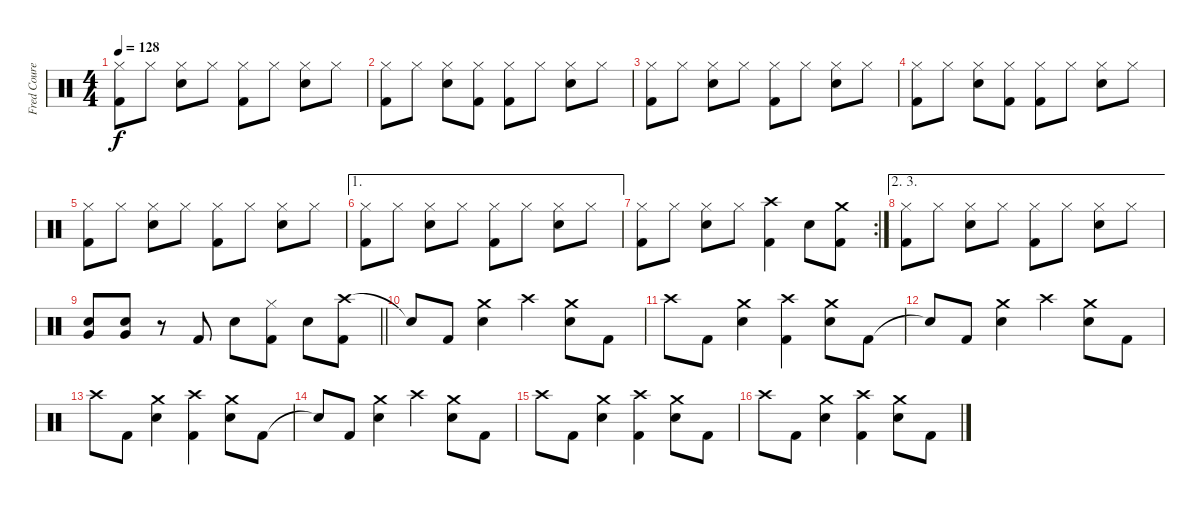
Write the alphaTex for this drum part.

\track ("Fred Courey" "Fred Coure") {instrument percussion}
\staff {score}
\articulation defaults
\ts (4 4)
\tempo 128
\clef neutral
\ks c
("Hi-Hat (closed)" "Kick (hit) 2").8{dy f} "Hi-Hat (closed)".8 ("Hi-Hat (closed)" "Snare (hit) 2").8 "Hi-Hat (closed)".8 ("Hi-Hat (closed)" "Kick (hit) 2").8 "Hi-Hat (closed)".8 ("Hi-Hat (closed)" "Snare (hit) 2").8 "Hi-Hat (closed)".8 |
("Hi-Hat (closed)" "Kick (hit) 2").8 "Hi-Hat (closed)".8 ("Hi-Hat (closed)" "Snare (hit) 2").8 ("Hi-Hat (closed)" "Kick (hit) 2").8 ("Hi-Hat (closed)" "Kick (hit) 2").8 "Hi-Hat (closed)".8 ("Hi-Hat (closed)" "Snare (hit) 2").8 "Hi-Hat (closed)".8 |
("Hi-Hat (closed)" "Kick (hit) 2").8 "Hi-Hat (closed)".8 ("Hi-Hat (closed)" "Snare (hit) 2").8 "Hi-Hat (closed)".8 ("Hi-Hat (closed)" "Kick (hit) 2").8 "Hi-Hat (closed)".8 ("Hi-Hat (closed)" "Snare (hit) 2").8 "Hi-Hat (closed)".8 |
("Hi-Hat (closed)" "Kick (hit) 2").8 "Hi-Hat (closed)".8 ("Hi-Hat (closed)" "Snare (hit) 2").8 ("Hi-Hat (closed)" "Kick (hit) 2").8 ("Hi-Hat (closed)" "Kick (hit) 2").8 "Hi-Hat (closed)".8 ("Hi-Hat (closed)" "Snare (hit) 2").8 "Hi-Hat (closed)".8 |
("Hi-Hat (closed)" "Kick (hit) 2").8 "Hi-Hat (closed)".8 ("Hi-Hat (closed)" "Snare (hit) 2").8 "Hi-Hat (closed)".8 ("Hi-Hat (closed)" "Kick (hit) 2").8 "Hi-Hat (closed)".8 ("Hi-Hat (closed)" "Snare (hit) 2").8 "Hi-Hat (closed)".8 |
\ae 1
("Hi-Hat (closed)" "Kick (hit) 2").8 "Hi-Hat (closed)".8 ("Hi-Hat (closed)" "Snare (hit) 2").8 "Hi-Hat (closed)".8 ("Hi-Hat (closed)" "Kick (hit) 2").8 "Hi-Hat (closed)".8 ("Hi-Hat (closed)" "Snare (hit) 2").8 "Hi-Hat (closed)".8 |
\rc 2
("Hi-Hat (closed)" "Kick (hit) 2").8 "Hi-Hat (closed)".8 ("Hi-Hat (closed)" "Snare (hit) 2").8 "Hi-Hat (closed)".8 ("Crash high (hit)" "Kick (hit) 2").4 "Snare (hit) 2".8 ("Crash medium (hit)" "Kick (hit) 2").8 |
\ae (2 3)
("Hi-Hat (closed)" "Kick (hit) 2").8 "Hi-Hat (closed)".8 ("Hi-Hat (closed)" "Snare (hit) 2").8 "Hi-Hat (closed)".8 ("Hi-Hat (closed)" "Kick (hit) 2").8 "Hi-Hat (closed)".8 ("Hi-Hat (closed)" "Snare (hit) 2").8 "Hi-Hat (closed)".8 |
\barLineRight lightlight
("Very Low Tom (hit)" "Snare (hit) 2").8 ("Very Low Tom (hit)" "Snare (hit) 2").8 r.8 "Kick (hit) 2".8 "Snare (hit) 2".8 ("Hi-Hat (closed)" "Kick (hit) 2").8 "Snare (hit) 2".8 ("Crash high (hit)" "Kick (hit) 2").8 |
"Snare (hit)"{t}.8 "Kick (hit) 2".8 ("Crash medium (hit)" "Snare (hit) 2").4 "Crash high (hit)".4 ("Crash medium (hit)" "Snare (hit) 2").8 "Kick (hit) 2".8 |
"Crash high (hit)".8 "Kick (hit) 2".8 ("Crash medium (hit)" "Snare (hit) 2").4 ("Crash high (hit)" "Kick (hit) 2").4 ("Crash medium (hit)" "Snare (hit) 2").8 "Kick (hit) 2".8 |
"Snare (hit)"{t}.8 "Kick (hit) 2".8 ("Crash medium (hit)" "Snare (hit) 2").4 "Crash high (hit)".4 ("Crash medium (hit)" "Snare (hit) 2").8 "Kick (hit) 2".8 |
"Crash high (hit)".8 "Kick (hit) 2".8 ("Crash medium (hit)" "Snare (hit) 2").4 ("Crash high (hit)" "Kick (hit) 2").4 ("Crash medium (hit)" "Snare (hit) 2").8 "Kick (hit) 2".8 |
"Snare (hit)"{t}.8 "Kick (hit) 2".8 ("Crash medium (hit)" "Snare (hit) 2").4 "Crash high (hit)".4 ("Crash medium (hit)" "Snare (hit) 2").8 "Kick (hit) 2".8 |
"Crash high (hit)".8 "Kick (hit) 2".8 ("Crash medium (hit)" "Snare (hit) 2").4 ("Crash high (hit)" "Kick (hit) 2").4 ("Crash medium (hit)" "Snare (hit) 2").8 "Kick (hit) 2".8 |
"Crash high (hit)".8 "Kick (hit) 2".8 ("Crash medium (hit)" "Snare (hit) 2").4 ("Crash high (hit)" "Kick (hit) 2").4 ("Crash medium (hit)" "Snare (hit) 2").8 "Kick (hit) 2".8
